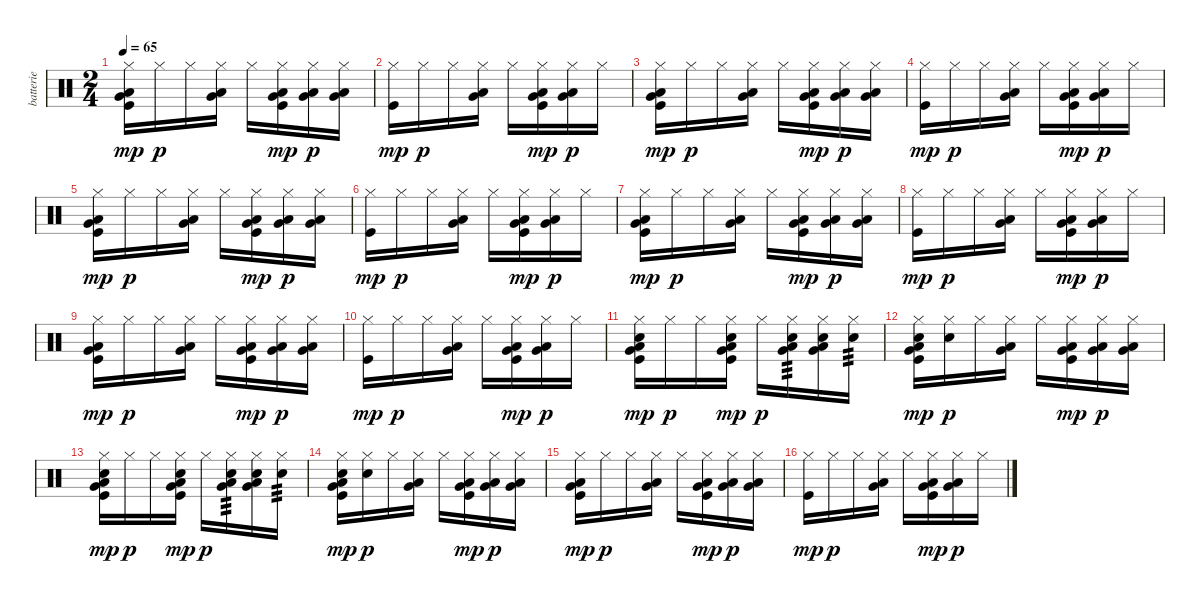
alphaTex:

\track ("batterie" "batterie") {instrument percussion}
\staff {score}
\articulation defaults
\ts (2 4)
\tempo 65
\clef neutral
\ks c
("Hi-Hat (closed)" "Low Tom (hit)" "Very Low Tom (hit)" "Kick (hit)").16{dy mp} "Hi-Hat (closed)".16{dy p} "Hi-Hat (closed)".16 ("Hi-Hat (closed)" "Low Tom (hit)" "Very Low Tom (hit)").16 "Hi-Hat (closed)".16 ("Hi-Hat (closed)" "Low Tom (hit)" "Very Low Tom (hit)" "Kick (hit)").16{dy mp} ("Hi-Hat (closed)" "Low Tom (hit)" "Very Low Tom (hit)").16{dy p} ("Hi-Hat (closed)" "Low Tom (hit)" "Very Low Tom (hit)").16 |
("Hi-Hat (closed)" "Kick (hit)").16{dy mp} "Hi-Hat (closed)".16{dy p} "Hi-Hat (closed)".16 ("Hi-Hat (closed)" "Low Tom (hit)" "Very Low Tom (hit)").16 "Hi-Hat (closed)".16 ("Hi-Hat (closed)" "Low Tom (hit)" "Very Low Tom (hit)" "Kick (hit)").16{dy mp} ("Hi-Hat (closed)" "Low Tom (hit)" "Very Low Tom (hit)").16{dy p} "Hi-Hat (closed)".16 |
("Hi-Hat (closed)" "Low Tom (hit)" "Very Low Tom (hit)" "Kick (hit)").16{dy mp} "Hi-Hat (closed)".16{dy p} "Hi-Hat (closed)".16 ("Hi-Hat (closed)" "Low Tom (hit)" "Very Low Tom (hit)").16 "Hi-Hat (closed)".16 ("Hi-Hat (closed)" "Low Tom (hit)" "Very Low Tom (hit)" "Kick (hit)").16{dy mp} ("Hi-Hat (closed)" "Low Tom (hit)" "Very Low Tom (hit)").16{dy p} ("Hi-Hat (closed)" "Low Tom (hit)" "Very Low Tom (hit)").16 |
("Hi-Hat (closed)" "Kick (hit)").16{dy mp} "Hi-Hat (closed)".16{dy p} "Hi-Hat (closed)".16 ("Hi-Hat (closed)" "Low Tom (hit)" "Very Low Tom (hit)").16 "Hi-Hat (closed)".16 ("Hi-Hat (closed)" "Low Tom (hit)" "Very Low Tom (hit)" "Kick (hit)").16{dy mp} ("Hi-Hat (closed)" "Low Tom (hit)" "Very Low Tom (hit)").16{dy p} "Hi-Hat (closed)".16 |
("Hi-Hat (closed)" "Low Tom (hit)" "Very Low Tom (hit)" "Kick (hit)").16{dy mp} "Hi-Hat (closed)".16{dy p} "Hi-Hat (closed)".16 ("Hi-Hat (closed)" "Low Tom (hit)" "Very Low Tom (hit)").16 "Hi-Hat (closed)".16 ("Hi-Hat (closed)" "Low Tom (hit)" "Very Low Tom (hit)" "Kick (hit)").16{dy mp} ("Hi-Hat (closed)" "Low Tom (hit)" "Very Low Tom (hit)").16{dy p} ("Hi-Hat (closed)" "Low Tom (hit)" "Very Low Tom (hit)").16 |
("Hi-Hat (closed)" "Kick (hit)").16{dy mp} "Hi-Hat (closed)".16{dy p} "Hi-Hat (closed)".16 ("Hi-Hat (closed)" "Low Tom (hit)" "Very Low Tom (hit)").16 "Hi-Hat (closed)".16 ("Hi-Hat (closed)" "Low Tom (hit)" "Very Low Tom (hit)" "Kick (hit)").16{dy mp} ("Hi-Hat (closed)" "Low Tom (hit)" "Very Low Tom (hit)").16{dy p} "Hi-Hat (closed)".16 |
("Hi-Hat (closed)" "Low Tom (hit)" "Very Low Tom (hit)" "Kick (hit)").16{dy mp} "Hi-Hat (closed)".16{dy p} "Hi-Hat (closed)".16 ("Hi-Hat (closed)" "Low Tom (hit)" "Very Low Tom (hit)").16 "Hi-Hat (closed)".16 ("Hi-Hat (closed)" "Low Tom (hit)" "Very Low Tom (hit)" "Kick (hit)").16{dy mp} ("Hi-Hat (closed)" "Low Tom (hit)" "Very Low Tom (hit)").16{dy p} ("Hi-Hat (closed)" "Low Tom (hit)" "Very Low Tom (hit)").16 |
("Hi-Hat (closed)" "Kick (hit)").16{dy mp} "Hi-Hat (closed)".16{dy p} "Hi-Hat (closed)".16 ("Hi-Hat (closed)" "Low Tom (hit)" "Very Low Tom (hit)").16 "Hi-Hat (closed)".16 ("Hi-Hat (closed)" "Low Tom (hit)" "Very Low Tom (hit)" "Kick (hit)").16{dy mp} ("Hi-Hat (closed)" "Low Tom (hit)" "Very Low Tom (hit)").16{dy p} "Hi-Hat (closed)".16 |
("Hi-Hat (closed)" "Low Tom (hit)" "Very Low Tom (hit)" "Kick (hit)").16{dy mp} "Hi-Hat (closed)".16{dy p} "Hi-Hat (closed)".16 ("Hi-Hat (closed)" "Low Tom (hit)" "Very Low Tom (hit)").16 "Hi-Hat (closed)".16 ("Hi-Hat (closed)" "Low Tom (hit)" "Very Low Tom (hit)" "Kick (hit)").16{dy mp} ("Hi-Hat (closed)" "Low Tom (hit)" "Very Low Tom (hit)").16{dy p} ("Hi-Hat (closed)" "Low Tom (hit)" "Very Low Tom (hit)").16 |
("Hi-Hat (closed)" "Kick (hit)").16{dy mp} "Hi-Hat (closed)".16{dy p} "Hi-Hat (closed)".16 ("Hi-Hat (closed)" "Low Tom (hit)" "Very Low Tom (hit)").16 "Hi-Hat (closed)".16 ("Hi-Hat (closed)" "Low Tom (hit)" "Very Low Tom (hit)" "Kick (hit)").16{dy mp} ("Hi-Hat (closed)" "Low Tom (hit)" "Very Low Tom (hit)").16{dy p} "Hi-Hat (closed)".16 |
("Hi-Hat (closed)" "Low Tom (hit)" "Very Low Tom (hit)" "Kick (hit)" "Electric Snare (hit)").16{dy mp} "Hi-Hat (closed)".16{dy p} "Hi-Hat (closed)".16 ("Hi-Hat (closed)" "Low Tom (hit)" "Very Low Tom (hit)" "Kick (hit)" "Electric Snare (hit)").16{dy mp} "Hi-Hat (closed)".16{dy p} ("Hi-Hat (closed)" "Low Tom (hit)" "Very Low Tom (hit)" "Electric Snare (hit)").16{tp 3} ("Hi-Hat (closed)" "Low Tom (hit)" "Very Low Tom (hit)" "Electric Snare (hit)").16 ("Hi-Hat (closed)" "Electric Snare (hit)").16{tp 3} |
("Hi-Hat (closed)" "Low Tom (hit)" "Very Low Tom (hit)" "Kick (hit)" "Electric Snare (hit)").16{dy mp} ("Hi-Hat (closed)" "Electric Snare (hit)").16{dy p} "Hi-Hat (closed)".16 ("Hi-Hat (closed)" "Low Tom (hit)" "Very Low Tom (hit)").16 "Hi-Hat (closed)".16 ("Hi-Hat (closed)" "Low Tom (hit)" "Very Low Tom (hit)" "Kick (hit)").16{dy mp} ("Hi-Hat (closed)" "Low Tom (hit)" "Very Low Tom (hit)").16{dy p} ("Hi-Hat (closed)" "Low Tom (hit)" "Very Low Tom (hit)").16 |
("Hi-Hat (closed)" "Low Tom (hit)" "Very Low Tom (hit)" "Kick (hit)" "Electric Snare (hit)").16{dy mp} "Hi-Hat (closed)".16{dy p} "Hi-Hat (closed)".16 ("Hi-Hat (closed)" "Low Tom (hit)" "Very Low Tom (hit)" "Kick (hit)" "Electric Snare (hit)").16{dy mp} "Hi-Hat (closed)".16{dy p} ("Hi-Hat (closed)" "Low Tom (hit)" "Very Low Tom (hit)" "Electric Snare (hit)").16{tp 3} ("Hi-Hat (closed)" "Low Tom (hit)" "Very Low Tom (hit)" "Electric Snare (hit)").16 ("Hi-Hat (closed)" "Electric Snare (hit)").16{tp 3} |
("Hi-Hat (closed)" "Low Tom (hit)" "Very Low Tom (hit)" "Kick (hit)" "Electric Snare (hit)").16{dy mp} ("Hi-Hat (closed)" "Electric Snare (hit)").16{dy p} "Hi-Hat (closed)".16 ("Hi-Hat (closed)" "Low Tom (hit)" "Very Low Tom (hit)").16 "Hi-Hat (closed)".16 ("Hi-Hat (closed)" "Low Tom (hit)" "Very Low Tom (hit)" "Kick (hit)").16{dy mp} ("Hi-Hat (closed)" "Low Tom (hit)" "Very Low Tom (hit)").16{dy p} ("Hi-Hat (closed)" "Low Tom (hit)" "Very Low Tom (hit)").16 |
("Hi-Hat (closed)" "Low Tom (hit)" "Very Low Tom (hit)" "Kick (hit)").16{dy mp} "Hi-Hat (closed)".16{dy p} "Hi-Hat (closed)".16 ("Hi-Hat (closed)" "Low Tom (hit)" "Very Low Tom (hit)").16 "Hi-Hat (closed)".16 ("Hi-Hat (closed)" "Low Tom (hit)" "Very Low Tom (hit)" "Kick (hit)").16{dy mp} ("Hi-Hat (closed)" "Low Tom (hit)" "Very Low Tom (hit)").16{dy p} ("Hi-Hat (closed)" "Low Tom (hit)" "Very Low Tom (hit)").16 |
("Hi-Hat (closed)" "Kick (hit)").16{dy mp} "Hi-Hat (closed)".16{dy p} "Hi-Hat (closed)".16 ("Hi-Hat (closed)" "Low Tom (hit)" "Very Low Tom (hit)").16 "Hi-Hat (closed)".16 ("Hi-Hat (closed)" "Low Tom (hit)" "Very Low Tom (hit)" "Kick (hit)").16{dy mp} ("Hi-Hat (closed)" "Low Tom (hit)" "Very Low Tom (hit)").16{dy p} "Hi-Hat (closed)".16
